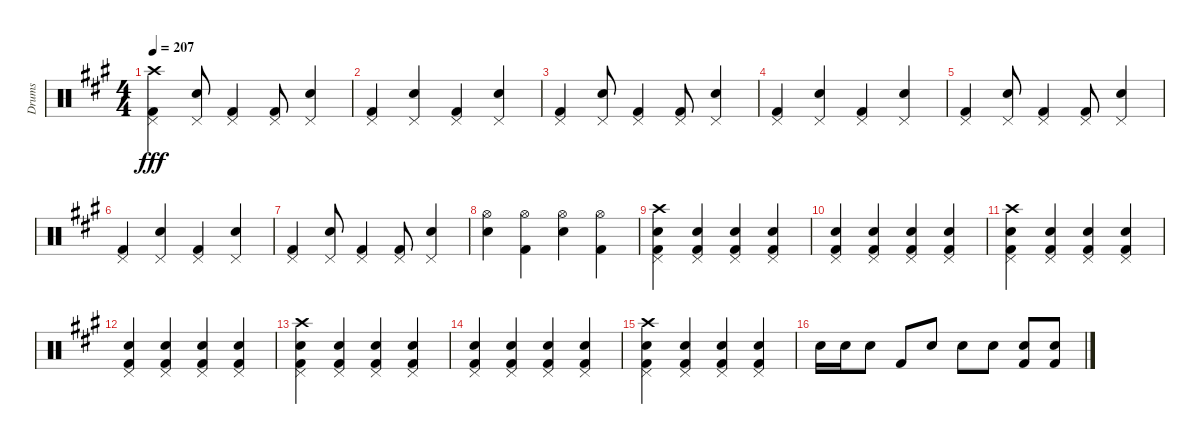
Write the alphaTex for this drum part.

\track ("Drums" "Drums") {instrument percussion}
\staff {score}
\articulation defaults
\ts (4 4)
\tempo 207
\clef neutral
\ks a
("Crash high (hit)" "Pedal Hi-Hat (hit)" "Kick (hit) 2").4{dy fff} ("Pedal Hi-Hat (hit)" "Snare (hit) 2").8 ("Pedal Hi-Hat (hit)" "Kick (hit) 2").4 ("Pedal Hi-Hat (hit)" "Kick (hit) 2").8 ("Pedal Hi-Hat (hit)" "Snare (hit) 2").4 |
("Pedal Hi-Hat (hit)" "Kick (hit) 2").4 ("Pedal Hi-Hat (hit)" "Snare (hit) 2").4 ("Pedal Hi-Hat (hit)" "Kick (hit) 2").4 ("Pedal Hi-Hat (hit)" "Snare (hit) 2").4 |
("Pedal Hi-Hat (hit)" "Kick (hit) 2").4 ("Pedal Hi-Hat (hit)" "Snare (hit) 2").8 ("Pedal Hi-Hat (hit)" "Kick (hit) 2").4 ("Pedal Hi-Hat (hit)" "Kick (hit) 2").8 ("Pedal Hi-Hat (hit)" "Snare (hit) 2").4 |
("Pedal Hi-Hat (hit)" "Kick (hit) 2").4 ("Pedal Hi-Hat (hit)" "Snare (hit) 2").4 ("Pedal Hi-Hat (hit)" "Kick (hit) 2").4 ("Pedal Hi-Hat (hit)" "Snare (hit) 2").4 |
("Pedal Hi-Hat (hit)" "Kick (hit) 2").4 ("Pedal Hi-Hat (hit)" "Snare (hit) 2").8 ("Pedal Hi-Hat (hit)" "Kick (hit) 2").4 ("Pedal Hi-Hat (hit)" "Kick (hit) 2").8 ("Pedal Hi-Hat (hit)" "Snare (hit) 2").4 |
("Pedal Hi-Hat (hit)" "Kick (hit) 2").4 ("Pedal Hi-Hat (hit)" "Snare (hit) 2").4 ("Pedal Hi-Hat (hit)" "Kick (hit) 2").4 ("Pedal Hi-Hat (hit)" "Snare (hit) 2").4 |
("Pedal Hi-Hat (hit)" "Kick (hit) 2").4 ("Pedal Hi-Hat (hit)" "Snare (hit) 2").8 ("Pedal Hi-Hat (hit)" "Kick (hit) 2").4 ("Pedal Hi-Hat (hit)" "Kick (hit) 2").8 ("Pedal Hi-Hat (hit)" "Snare (hit) 2").4 |
("Hi-Hat (open)" "Snare (hit) 2").4 ("Hi-Hat (open)" "Kick (hit) 2").4 ("Hi-Hat (open)" "Snare (hit) 2").4 ("Hi-Hat (open)" "Kick (hit) 2").4 |
("Crash high (hit)" "Pedal Hi-Hat (hit)" "Snare (hit) 2" "Kick (hit) 2").4 ("Pedal Hi-Hat (hit)" "Snare (hit) 2" "Kick (hit) 2").4 ("Pedal Hi-Hat (hit)" "Snare (hit) 2" "Kick (hit) 2").4 ("Pedal Hi-Hat (hit)" "Snare (hit) 2" "Kick (hit) 2").4 |
("Pedal Hi-Hat (hit)" "Snare (hit) 2" "Kick (hit) 2").4 ("Pedal Hi-Hat (hit)" "Snare (hit) 2" "Kick (hit) 2").4 ("Pedal Hi-Hat (hit)" "Snare (hit) 2" "Kick (hit) 2").4 ("Pedal Hi-Hat (hit)" "Snare (hit) 2" "Kick (hit) 2").4 |
("Crash high (hit)" "Pedal Hi-Hat (hit)" "Snare (hit) 2" "Kick (hit) 2").4 ("Pedal Hi-Hat (hit)" "Snare (hit) 2" "Kick (hit) 2").4 ("Pedal Hi-Hat (hit)" "Snare (hit) 2" "Kick (hit) 2").4 ("Pedal Hi-Hat (hit)" "Snare (hit) 2" "Kick (hit) 2").4 |
("Pedal Hi-Hat (hit)" "Snare (hit) 2" "Kick (hit) 2").4 ("Pedal Hi-Hat (hit)" "Snare (hit) 2" "Kick (hit) 2").4 ("Pedal Hi-Hat (hit)" "Snare (hit) 2" "Kick (hit) 2").4 ("Pedal Hi-Hat (hit)" "Snare (hit) 2" "Kick (hit) 2").4 |
("Crash high (hit)" "Pedal Hi-Hat (hit)" "Snare (hit) 2" "Kick (hit) 2").4 ("Pedal Hi-Hat (hit)" "Snare (hit) 2" "Kick (hit) 2").4 ("Pedal Hi-Hat (hit)" "Snare (hit) 2" "Kick (hit) 2").4 ("Pedal Hi-Hat (hit)" "Snare (hit) 2" "Kick (hit) 2").4 |
("Pedal Hi-Hat (hit)" "Snare (hit) 2" "Kick (hit) 2").4 ("Pedal Hi-Hat (hit)" "Snare (hit) 2" "Kick (hit) 2").4 ("Pedal Hi-Hat (hit)" "Snare (hit) 2" "Kick (hit) 2").4 ("Pedal Hi-Hat (hit)" "Snare (hit) 2" "Kick (hit) 2").4 |
("Crash high (hit)" "Pedal Hi-Hat (hit)" "Snare (hit) 2" "Kick (hit) 2").4 ("Pedal Hi-Hat (hit)" "Snare (hit) 2" "Kick (hit) 2").4 ("Pedal Hi-Hat (hit)" "Snare (hit) 2" "Kick (hit) 2").4 ("Pedal Hi-Hat (hit)" "Snare (hit) 2" "Kick (hit) 2").4 |
"Snare (hit) 2".16 "Snare (hit) 2".16 "Snare (hit) 2".8 "Kick (hit) 2".8 "Snare (hit) 2".8 "Snare (hit) 2".8 "Snare (hit) 2".8 ("Snare (hit) 2" "Kick (hit) 2").8 ("Snare (hit) 2" "Kick (hit) 2").8
